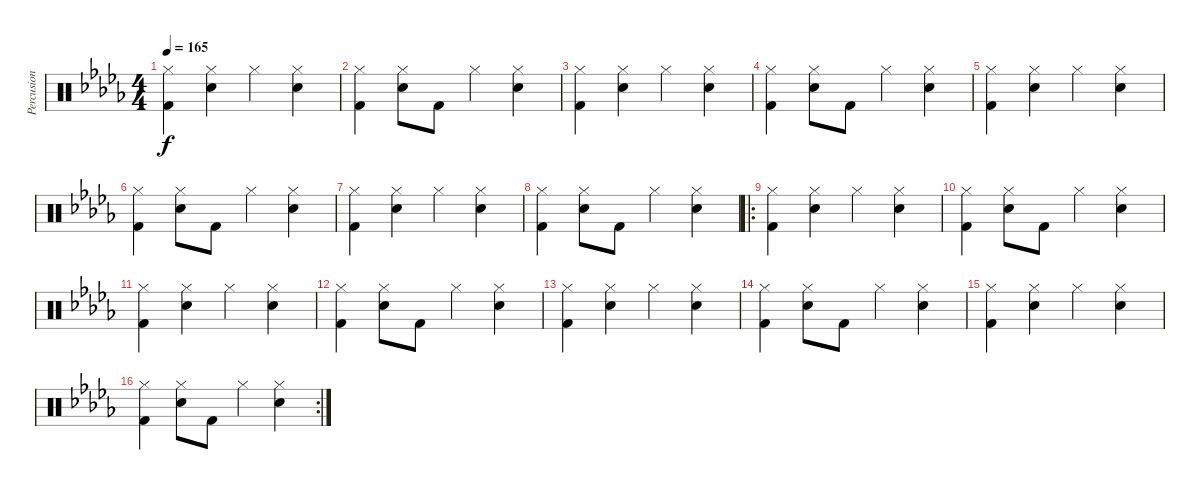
\track ("Percusion (percussions)" "Percusion ") {instrument percussion}
\staff {score}
\articulation defaults
\ts (4 4)
\tempo 165
\clef neutral
\ks db
("Hi-Hat (closed)" "Kick (hit) 2").4{dy f} ("Hi-Hat (closed)" "Snare (hit) 2").4 "Hi-Hat (closed)".4 ("Hi-Hat (closed)" "Snare (hit) 2").4 |
("Hi-Hat (closed)" "Kick (hit) 2").4 ("Hi-Hat (closed)" "Snare (hit) 2").8 "Kick (hit) 2".8 "Hi-Hat (closed)".4 ("Hi-Hat (closed)" "Snare (hit) 2").4 |
("Hi-Hat (closed)" "Kick (hit) 2").4 ("Hi-Hat (closed)" "Snare (hit) 2").4 "Hi-Hat (closed)".4 ("Hi-Hat (closed)" "Snare (hit) 2").4 |
("Hi-Hat (closed)" "Kick (hit) 2").4 ("Hi-Hat (closed)" "Snare (hit) 2").8 "Kick (hit) 2".8 "Hi-Hat (closed)".4 ("Hi-Hat (closed)" "Snare (hit) 2").4 |
("Hi-Hat (closed)" "Kick (hit) 2").4 ("Hi-Hat (closed)" "Snare (hit) 2").4 "Hi-Hat (closed)".4 ("Hi-Hat (closed)" "Snare (hit) 2").4 |
("Hi-Hat (closed)" "Kick (hit) 2").4 ("Hi-Hat (closed)" "Snare (hit) 2").8 "Kick (hit) 2".8 "Hi-Hat (closed)".4 ("Hi-Hat (closed)" "Snare (hit) 2").4 |
("Hi-Hat (closed)" "Kick (hit) 2").4 ("Hi-Hat (closed)" "Snare (hit) 2").4 "Hi-Hat (closed)".4 ("Hi-Hat (closed)" "Snare (hit) 2").4 |
("Hi-Hat (closed)" "Kick (hit) 2").4 ("Hi-Hat (closed)" "Snare (hit) 2").8 "Kick (hit) 2".8 "Hi-Hat (closed)".4 ("Hi-Hat (closed)" "Snare (hit) 2").4 |
\ro
("Hi-Hat (closed)" "Kick (hit) 2").4 ("Hi-Hat (closed)" "Snare (hit) 2").4 "Hi-Hat (closed)".4 ("Hi-Hat (closed)" "Snare (hit) 2").4 |
("Hi-Hat (closed)" "Kick (hit) 2").4 ("Hi-Hat (closed)" "Snare (hit) 2").8 "Kick (hit) 2".8 "Hi-Hat (closed)".4 ("Hi-Hat (closed)" "Snare (hit) 2").4 |
("Hi-Hat (closed)" "Kick (hit) 2").4 ("Hi-Hat (closed)" "Snare (hit) 2").4 "Hi-Hat (closed)".4 ("Hi-Hat (closed)" "Snare (hit) 2").4 |
("Hi-Hat (closed)" "Kick (hit) 2").4 ("Hi-Hat (closed)" "Snare (hit) 2").8 "Kick (hit) 2".8 "Hi-Hat (closed)".4 ("Hi-Hat (closed)" "Snare (hit) 2").4 |
("Hi-Hat (closed)" "Kick (hit) 2").4 ("Hi-Hat (closed)" "Snare (hit) 2").4 "Hi-Hat (closed)".4 ("Hi-Hat (closed)" "Snare (hit) 2").4 |
("Hi-Hat (closed)" "Kick (hit) 2").4 ("Hi-Hat (closed)" "Snare (hit) 2").8 "Kick (hit) 2".8 "Hi-Hat (closed)".4 ("Hi-Hat (closed)" "Snare (hit) 2").4 |
("Hi-Hat (closed)" "Kick (hit) 2").4 ("Hi-Hat (closed)" "Snare (hit) 2").4 "Hi-Hat (closed)".4 ("Hi-Hat (closed)" "Snare (hit) 2").4 |
\rc 2
("Hi-Hat (closed)" "Kick (hit) 2").4 ("Hi-Hat (closed)" "Snare (hit) 2").8 "Kick (hit) 2".8 "Hi-Hat (closed)".4 ("Hi-Hat (closed)" "Snare (hit) 2").4
